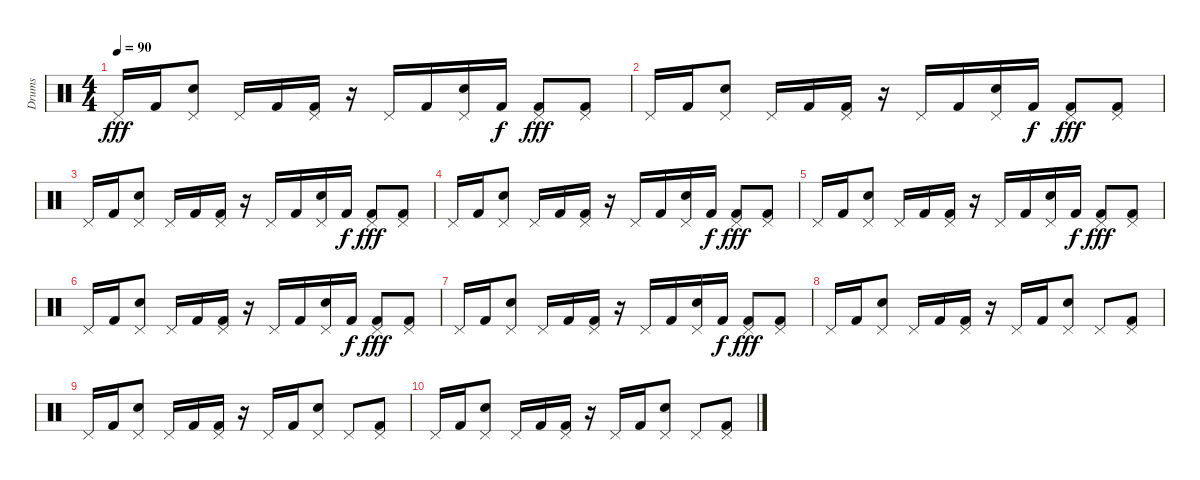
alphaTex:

\track ("Drums" "Drums") {instrument percussion}
\staff {score}
\articulation defaults
\ts (4 4)
\tempo 90
\clef neutral
\ks c "Pedal Hi-Hat (hit)".16{dy fff} "Kick (hit) 2".16
("Electric Snare (hit)" "Pedal Hi-Hat (hit)").8 "Pedal Hi-Hat (hit)".16 "Kick (hit) 2".16 ("Kick (hit) 2" "Pedal Hi-Hat (hit)").16 r.16 "Pedal Hi-Hat (hit)".16 "Kick (hit) 2".16 ("Pedal Hi-Hat (hit)" "Electric Snare (hit)").16 "Kick (hit) 2".16{dy f} ("Kick (hit) 2" "Pedal Hi-Hat (hit)").8{dy fff} ("Kick (hit) 2" "Pedal Hi-Hat (hit)").8 |
"Pedal Hi-Hat (hit)".16 "Kick (hit) 2".16 ("Electric Snare (hit)" "Pedal Hi-Hat (hit)").8 "Pedal Hi-Hat (hit)".16 "Kick (hit) 2".16 ("Kick (hit) 2" "Pedal Hi-Hat (hit)").16 r.16 "Pedal Hi-Hat (hit)".16 "Kick (hit) 2".16 ("Pedal Hi-Hat (hit)" "Electric Snare (hit)").16 "Kick (hit) 2".16{dy f} ("Kick (hit) 2" "Pedal Hi-Hat (hit)").8{dy fff} ("Kick (hit) 2" "Pedal Hi-Hat (hit)").8 |
"Pedal Hi-Hat (hit)".16 "Kick (hit) 2".16 ("Electric Snare (hit)" "Pedal Hi-Hat (hit)").8 "Pedal Hi-Hat (hit)".16 "Kick (hit) 2".16 ("Kick (hit) 2" "Pedal Hi-Hat (hit)").16 r.16 "Pedal Hi-Hat (hit)".16 "Kick (hit) 2".16 ("Pedal Hi-Hat (hit)" "Electric Snare (hit)").16 "Kick (hit) 2".16{dy f} ("Kick (hit) 2" "Pedal Hi-Hat (hit)").8{dy fff} ("Kick (hit) 2" "Pedal Hi-Hat (hit)").8 |
"Pedal Hi-Hat (hit)".16 "Kick (hit) 2".16 ("Electric Snare (hit)" "Pedal Hi-Hat (hit)").8 "Pedal Hi-Hat (hit)".16 "Kick (hit) 2".16 ("Kick (hit) 2" "Pedal Hi-Hat (hit)").16 r.16 "Pedal Hi-Hat (hit)".16 "Kick (hit) 2".16 ("Pedal Hi-Hat (hit)" "Electric Snare (hit)").16 "Kick (hit) 2".16{dy f} ("Kick (hit) 2" "Pedal Hi-Hat (hit)").8{dy fff} ("Kick (hit) 2" "Pedal Hi-Hat (hit)").8 |
"Pedal Hi-Hat (hit)".16 "Kick (hit) 2".16 ("Electric Snare (hit)" "Pedal Hi-Hat (hit)").8 "Pedal Hi-Hat (hit)".16 "Kick (hit) 2".16 ("Kick (hit) 2" "Pedal Hi-Hat (hit)").16 r.16 "Pedal Hi-Hat (hit)".16 "Kick (hit) 2".16 ("Pedal Hi-Hat (hit)" "Electric Snare (hit)").16 "Kick (hit) 2".16{dy f} ("Kick (hit) 2" "Pedal Hi-Hat (hit)").8{dy fff} ("Kick (hit) 2" "Pedal Hi-Hat (hit)").8 |
"Pedal Hi-Hat (hit)".16 "Kick (hit) 2".16 ("Electric Snare (hit)" "Pedal Hi-Hat (hit)").8 "Pedal Hi-Hat (hit)".16 "Kick (hit) 2".16 ("Kick (hit) 2" "Pedal Hi-Hat (hit)").16 r.16 "Pedal Hi-Hat (hit)".16 "Kick (hit) 2".16 ("Pedal Hi-Hat (hit)" "Electric Snare (hit)").16 "Kick (hit) 2".16{dy f} ("Kick (hit) 2" "Pedal Hi-Hat (hit)").8{dy fff} ("Kick (hit) 2" "Pedal Hi-Hat (hit)").8 |
"Pedal Hi-Hat (hit)".16 "Kick (hit) 2".16 ("Electric Snare (hit)" "Pedal Hi-Hat (hit)").8 "Pedal Hi-Hat (hit)".16{volume 16} "Kick (hit) 2".16{volume 16} ("Kick (hit) 2" "Pedal Hi-Hat (hit)").16{volume 15} r.16 "Pedal Hi-Hat (hit)".16{volume 15} "Kick (hit) 2".16{volume 15} ("Pedal Hi-Hat (hit)" "Electric Snare (hit)").16{volume 14} "Kick (hit) 2".16{dy f volume 14} ("Kick (hit) 2" "Pedal Hi-Hat (hit)").8{dy fff volume 14} ("Kick (hit) 2" "Pedal Hi-Hat (hit)").8{volume 14} |
"Pedal Hi-Hat (hit)".16{volume 13} "Kick (hit) 2".16{volume 13} ("Electric Snare (hit)" "Pedal Hi-Hat (hit)").8{volume 13} "Pedal Hi-Hat (hit)".16{volume 12} "Kick (hit) 2".16{volume 12} ("Kick (hit) 2" "Pedal Hi-Hat (hit)").16{volume 12} r.16 "Pedal Hi-Hat (hit)".16{volume 12} "Kick (hit) 2".16{volume 11} ("Pedal Hi-Hat (hit)" "Electric Snare (hit)").8{volume 11} "Pedal Hi-Hat (hit)".8{volume 11} ("Kick (hit) 2" "Pedal Hi-Hat (hit)").8{volume 10} |
"Pedal Hi-Hat (hit)".16{volume 10} "Kick (hit) 2".16{volume 10} ("Electric Snare (hit)" "Pedal Hi-Hat (hit)").8{volume 10} "Pedal Hi-Hat (hit)".16{volume 9} "Kick (hit) 2".16{volume 9} ("Kick (hit) 2" "Pedal Hi-Hat (hit)").16{volume 9} r.16 "Pedal Hi-Hat (hit)".16{volume 8} "Kick (hit) 2".16{volume 8} ("Pedal Hi-Hat (hit)" "Electric Snare (hit)").8{volume 8} "Pedal Hi-Hat (hit)".8{volume 7} ("Kick (hit) 2" "Pedal Hi-Hat (hit)").8{volume 7} |
"Pedal Hi-Hat (hit)".16{volume 6} "Kick (hit) 2".16{volume 6} ("Electric Snare (hit)" "Pedal Hi-Hat (hit)").8{volume 6} "Pedal Hi-Hat (hit)".16{volume 6} "Kick (hit) 2".16{volume 6} ("Kick (hit) 2" "Pedal Hi-Hat (hit)").16{volume 5} r.16 "Pedal Hi-Hat (hit)".16{volume 5} "Kick (hit) 2".16{volume 5} ("Pedal Hi-Hat (hit)" "Electric Snare (hit)").8{volume 4} "Pedal Hi-Hat (hit)".8{volume 4} ("Kick (hit) 2" "Pedal Hi-Hat (hit)").8
